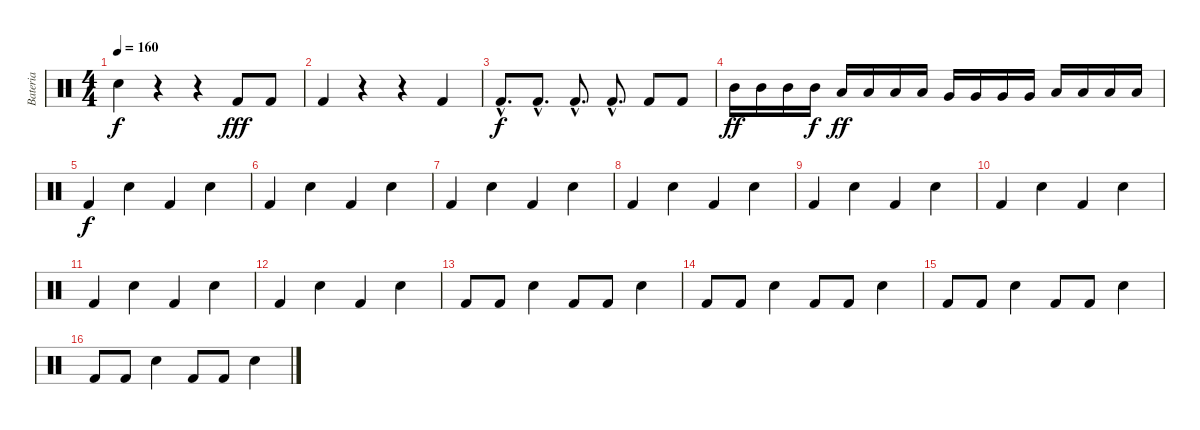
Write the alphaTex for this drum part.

\track ("Bateria" "Bateria") {instrument percussion}
\staff {score}
\articulation defaults
\ts (4 4)
\tempo 160
\clef neutral
\ks c "Snare (hit) 2".4{dy f}
r.4 r.4 "Kick (hit) 2".8{dy fff} "Kick (hit) 2".8 |
"Kick (hit) 2".4 r.4 r.4 "Kick (hit) 2".4 |
"Kick (hit) 2"{hac}.8{d dy f} "Kick (hit) 2"{hac}.8{d} "Kick (hit) 2"{hac}.8{d} "Kick (hit) 2"{hac}.8{d} "Kick (hit) 2".8 "Kick (hit) 2".8 |
"Mid Tom (hit)".16{dy ff} "Mid Tom (hit)".16 "Mid Tom (hit)".16 "Mid Tom (hit)".16{dy f} "Low Tom (hit)".16{dy ff} "Low Tom (hit)".16 "Low Tom (hit)".16 "Low Tom (hit)".16 "Very Low Tom (hit)".16 "Very Low Tom (hit)".16 "Very Low Tom (hit)".16 "Very Low Tom (hit)".16 "Low Floor Tom (hit)".16 "Low Floor Tom (hit)".16 "Low Floor Tom (hit)".16 "Low Floor Tom (hit)".16 |
"Kick (hit) 2".4{dy f} "Snare (hit) 2".4 "Kick (hit) 2".4 "Snare (hit) 2".4 |
"Kick (hit) 2".4 "Snare (hit) 2".4 "Kick (hit) 2".4 "Snare (hit) 2".4 |
"Kick (hit) 2".4 "Snare (hit) 2".4 "Kick (hit) 2".4 "Snare (hit) 2".4 |
"Kick (hit) 2".4 "Snare (hit) 2".4 "Kick (hit) 2".4 "Snare (hit) 2".4 |
"Kick (hit) 2".4 "Snare (hit) 2".4 "Kick (hit) 2".4 "Snare (hit) 2".4 |
"Kick (hit) 2".4 "Snare (hit) 2".4 "Kick (hit) 2".4 "Snare (hit) 2".4 |
"Kick (hit) 2".4 "Snare (hit) 2".4 "Kick (hit) 2".4 "Snare (hit) 2".4 |
"Kick (hit) 2".4 "Snare (hit) 2".4 "Kick (hit) 2".4 "Snare (hit) 2".4 |
"Kick (hit) 2".8 "Kick (hit) 2".8 "Snare (hit) 2".4 "Kick (hit) 2".8 "Kick (hit) 2".8 "Snare (hit) 2".4 |
"Kick (hit) 2".8 "Kick (hit) 2".8 "Snare (hit) 2".4 "Kick (hit) 2".8 "Kick (hit) 2".8 "Snare (hit) 2".4 |
"Kick (hit) 2".8 "Kick (hit) 2".8 "Snare (hit) 2".4 "Kick (hit) 2".8 "Kick (hit) 2".8 "Snare (hit) 2".4 |
"Kick (hit) 2".8 "Kick (hit) 2".8 "Snare (hit) 2".4 "Kick (hit) 2".8 "Kick (hit) 2".8 "Snare (hit) 2".4
